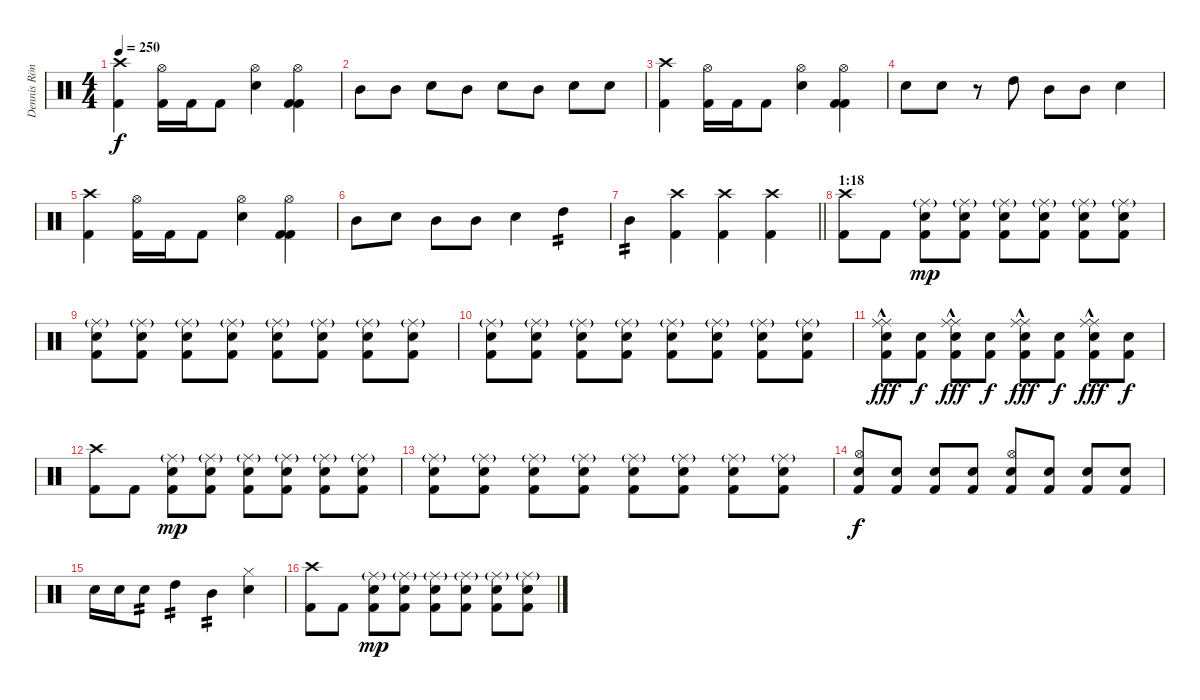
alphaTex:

\track ("Dennis Röndum" "Dennis Rön") {instrument percussion}
\staff {score}
\articulation defaults
\ts (4 4)
\tempo 250
\clef neutral
\ks c
("Crash high (hit)" "Kick (hit) 2").4{dy f} ("Hi-Hat (open)" "Kick (hit) 2").16 "Kick (hit) 2".16 "Kick (hit) 2".8 ("Snare (hit) 2" "Hi-Hat (open)").4 ("Hi-Hat (open)" "Kick (hit) 2" "Kick (hit) 2").4 |
"Mid Tom (hit)".8 "Mid Tom (hit)".8 "Snare (hit) 2".8 "Mid Tom (hit)".8 "Snare (hit) 2".8 "Mid Tom (hit)".8 "Snare (hit) 2".8 "Snare (hit) 2".8 |
("Crash high (hit)" "Kick (hit) 2").4 ("Hi-Hat (open)" "Kick (hit) 2").16 "Kick (hit) 2".16 "Kick (hit) 2".8 ("Snare (hit) 2" "Hi-Hat (open)").4 ("Hi-Hat (open)" "Kick (hit) 2" "Kick (hit) 2").4 |
"Snare (hit) 2".8 "Snare (hit) 2".8 r.8 "High Tom (hit)".8 "Mid Tom (hit)".8 "Mid Tom (hit)".8 "Snare (hit) 2".4 |
("Crash high (hit)" "Kick (hit) 2").4 ("Hi-Hat (open)" "Kick (hit) 2").16 "Kick (hit) 2".16 "Kick (hit) 2".8 ("Snare (hit) 2" "Hi-Hat (open)").4 ("Hi-Hat (open)" "Kick (hit) 2" "Kick (hit) 2").4 |
"Mid Tom (hit)".8 "Snare (hit) 2".8 "Mid Tom (hit)".8 "Mid Tom (hit)".8 "Snare (hit) 2".4 "High Tom (hit)".4{tp 2} |
\barLineRight lightlight "Mid Tom (hit)".4{tp 2}
("Crash high (hit)" "Kick (hit) 2").4 ("Crash high (hit)" "Kick (hit) 2").4 ("Crash high (hit)" "Kick (hit) 2").4 |
\section ("" "1:18")
("Crash high (hit)" "Kick (hit) 2").8 "Kick (hit) 2".8 ("Snare (hit) 2" "Ride (middle)"{g} "Kick (hit) 2").8{dy mp} ("Snare (hit) 2" "Ride (middle)"{g} "Kick (hit) 2").8 ("Snare (hit) 2" "Ride (middle)"{g} "Kick (hit) 2").8 ("Snare (hit) 2" "Ride (middle)"{g} "Kick (hit) 2").8 ("Snare (hit) 2" "Ride (middle)"{g} "Kick (hit) 2").8 ("Snare (hit) 2" "Ride (middle)"{g} "Kick (hit) 2").8 |
("Snare (hit) 2" "Ride (middle)"{g} "Kick (hit) 2").8 ("Snare (hit) 2" "Ride (middle)"{g} "Kick (hit) 2").8 ("Snare (hit) 2" "Ride (middle)"{g} "Kick (hit) 2").8 ("Snare (hit) 2" "Ride (middle)"{g} "Kick (hit) 2").8 ("Snare (hit) 2" "Ride (middle)"{g} "Kick (hit) 2").8 ("Snare (hit) 2" "Ride (middle)"{g} "Kick (hit) 2").8 ("Snare (hit) 2" "Ride (middle)"{g} "Kick (hit) 2").8 ("Snare (hit) 2" "Ride (middle)"{g} "Kick (hit) 2").8 |
("Snare (hit) 2" "Ride (middle)"{g} "Kick (hit) 2").8 ("Snare (hit) 2" "Ride (middle)"{g} "Kick (hit) 2").8 ("Snare (hit) 2" "Ride (middle)"{g} "Kick (hit) 2").8 ("Snare (hit) 2" "Ride (middle)"{g} "Kick (hit) 2").8 ("Snare (hit) 2" "Ride (middle)"{g} "Kick (hit) 2").8 ("Snare (hit) 2" "Ride (middle)"{g} "Kick (hit) 2").8 ("Snare (hit) 2" "Ride (middle)"{g} "Kick (hit) 2").8 ("Snare (hit) 2" "Ride (middle)"{g} "Kick (hit) 2").8 |
("Ride (middle)" "Snare (hit) 2" "Ride (middle)"{hac} "Kick (hit) 2").8{dy fff} ("Snare (hit) 2" "Kick (hit) 2").8{dy f} ("Ride (middle)" "Snare (hit) 2" "Ride (middle)"{hac} "Kick (hit) 2").8{dy fff} ("Snare (hit) 2" "Kick (hit) 2").8{dy f} ("Ride (middle)" "Snare (hit) 2" "Ride (middle)"{hac} "Kick (hit) 2").8{dy fff} ("Snare (hit) 2" "Kick (hit) 2").8{dy f} ("Ride (middle)" "Snare (hit) 2" "Ride (middle)"{hac} "Kick (hit) 2").8{dy fff} ("Snare (hit) 2" "Kick (hit) 2").8{dy f} |
("Crash high (hit)" "Kick (hit) 2").8 "Kick (hit) 2".8 ("Snare (hit) 2" "Ride (middle)"{g} "Kick (hit) 2").8{dy mp} ("Snare (hit) 2" "Ride (middle)"{g} "Kick (hit) 2").8 ("Snare (hit) 2" "Ride (middle)"{g} "Kick (hit) 2").8 ("Snare (hit) 2" "Ride (middle)"{g} "Kick (hit) 2").8 ("Snare (hit) 2" "Ride (middle)"{g} "Kick (hit) 2").8 ("Snare (hit) 2" "Ride (middle)"{g} "Kick (hit) 2").8 |
("Snare (hit) 2" "Ride (middle)"{g} "Kick (hit) 2").8 ("Snare (hit) 2" "Ride (middle)"{g} "Kick (hit) 2").8 ("Snare (hit) 2" "Ride (middle)"{g} "Kick (hit) 2").8 ("Snare (hit) 2" "Ride (middle)"{g} "Kick (hit) 2").8 ("Snare (hit) 2" "Ride (middle)"{g} "Kick (hit) 2").8 ("Snare (hit) 2" "Ride (middle)"{g} "Kick (hit) 2").8 ("Snare (hit) 2" "Ride (middle)"{g} "Kick (hit) 2").8 ("Snare (hit) 2" "Ride (middle)"{g} "Kick (hit) 2").8 |
("Snare (hit) 2" "Hi-Hat (open)" "Kick (hit) 2").8{dy f} ("Snare (hit) 2" "Kick (hit) 2").8 ("Snare (hit) 2" "Kick (hit) 2").8 ("Snare (hit) 2" "Kick (hit) 2").8 ("Snare (hit) 2" "Hi-Hat (open)" "Kick (hit) 2").8 ("Snare (hit) 2" "Kick (hit) 2").8 ("Snare (hit) 2" "Kick (hit) 2").8 ("Snare (hit) 2" "Kick (hit) 2").8 |
"Snare (hit) 2".16 "Snare (hit) 2".16 "Snare (hit) 2".8{tp 2} "High Tom (hit)".4{tp 2} "Mid Tom (hit)".4{tp 2} ("Hi-Hat (closed)" "Snare (hit) 2").4 |
("Crash high (hit)" "Kick (hit) 2").8 "Kick (hit) 2".8 ("Snare (hit) 2" "Ride (middle)"{g} "Kick (hit) 2").8{dy mp} ("Snare (hit) 2" "Ride (middle)"{g} "Kick (hit) 2").8 ("Snare (hit) 2" "Ride (middle)"{g} "Kick (hit) 2").8 ("Snare (hit) 2" "Ride (middle)"{g} "Kick (hit) 2").8 ("Snare (hit) 2" "Ride (middle)"{g} "Kick (hit) 2").8 ("Snare (hit) 2" "Ride (middle)"{g} "Kick (hit) 2").8
